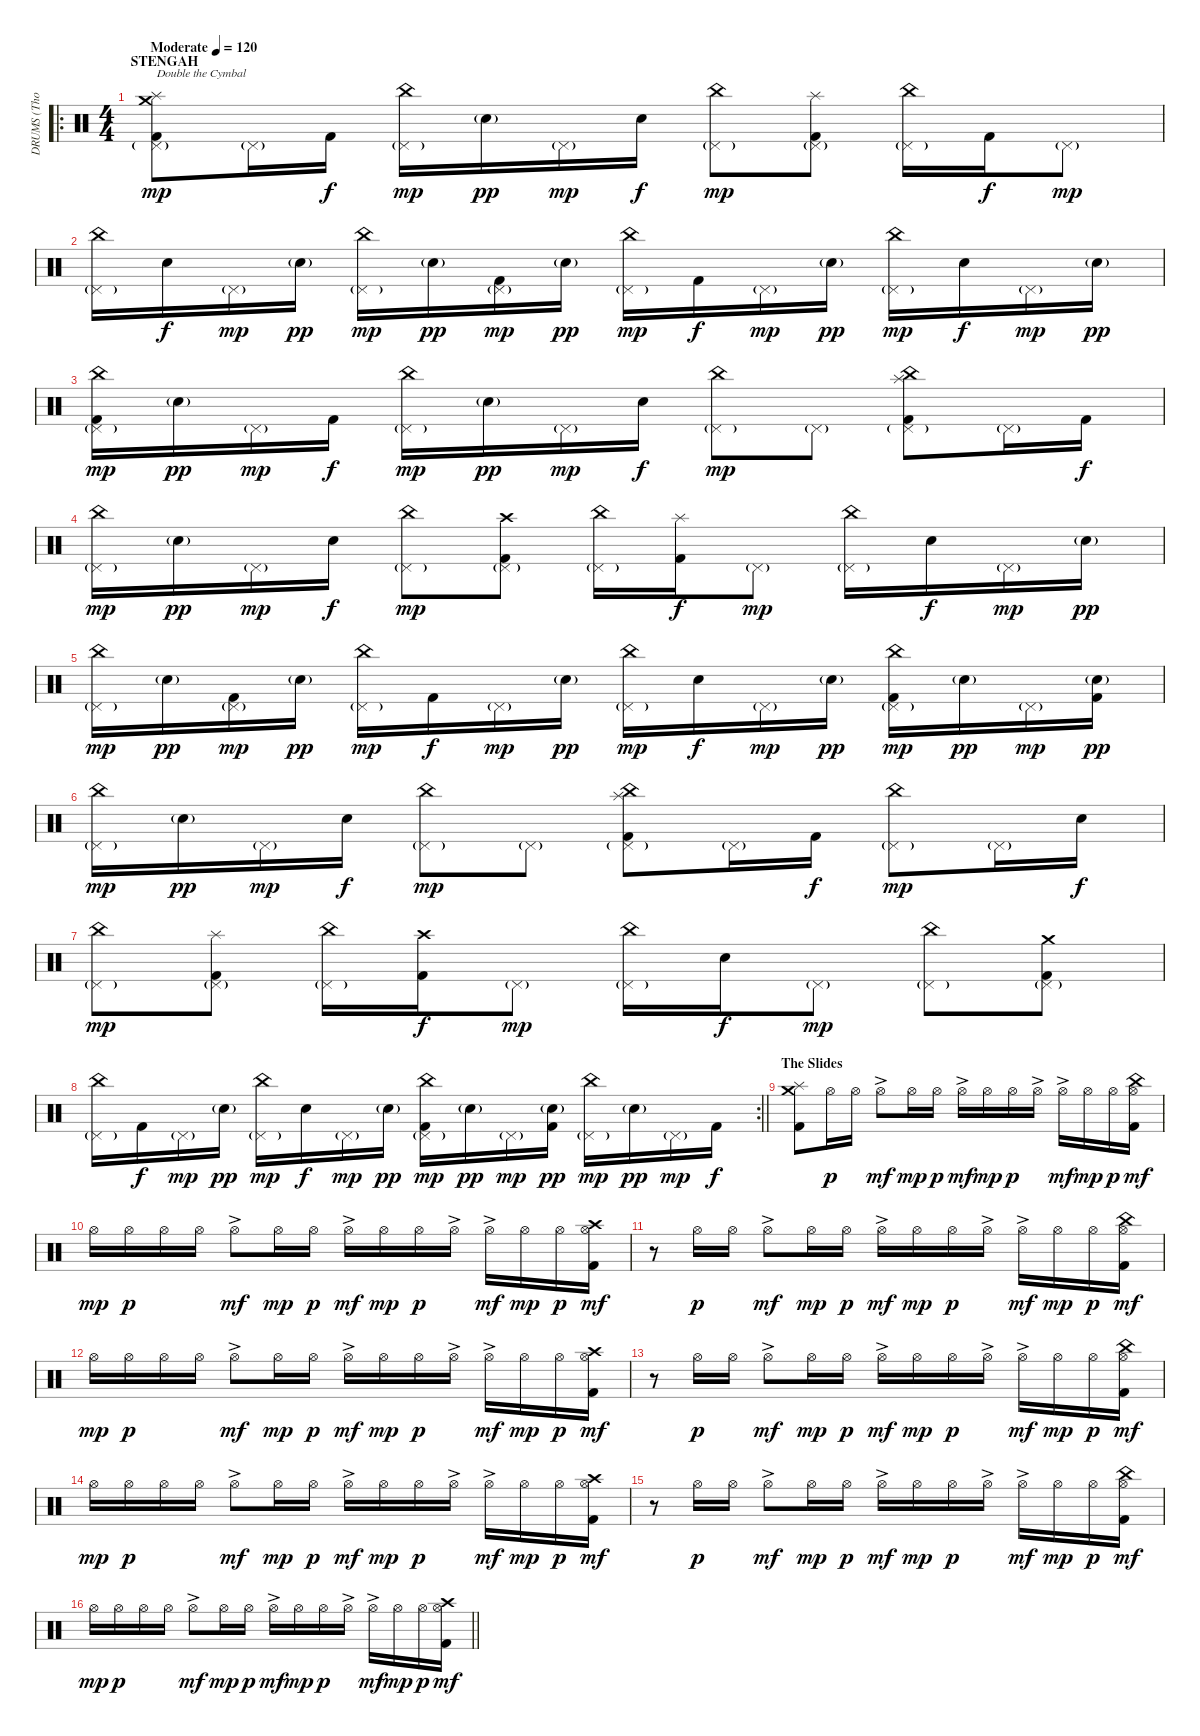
\track ("DRUMS (Thomas Haake)" "DRUMS (Tho") {instrument percussion}
\staff {score}
\articulation defaults
\ro
\ts (4 4)
\section ("" "STENGAH")
\tempo (120 "Moderate")
\clef neutral
\ks c
("Crash medium (hit)" "Pedal Hi-Hat (hit)"{g} "Splash (hit)" "Kick (hit) 2").8{txt "Double the Cymbal" dy mp} "Pedal Hi-Hat (hit)"{g}.16 "Kick (hit) 2".16{dy f} ("China (hit)" "Pedal Hi-Hat (hit)"{g}).16{dy mp} "Electric Snare (hit)"{g}.16{dy pp} "Pedal Hi-Hat (hit)"{g}.16{dy mp} "Electric Snare (hit)".16{dy f} ("China (hit)" "Pedal Hi-Hat (hit)"{g}).8{dy mp} ("Pedal Hi-Hat (hit)"{g} "Splash (hit)" "Kick (hit) 2").8 ("China (hit)" "Pedal Hi-Hat (hit)"{g}).16 "Kick (hit) 2".16{dy f} "Pedal Hi-Hat (hit)"{g}.8{dy mp} |
("China (hit)" "Pedal Hi-Hat (hit)"{g}).16 "Electric Snare (hit)".16{dy f} "Pedal Hi-Hat (hit)"{g}.16{dy mp} "Electric Snare (hit)"{g}.16{dy pp} ("China (hit)" "Pedal Hi-Hat (hit)"{g}).16{dy mp} "Electric Snare (hit)"{g}.16{dy pp} ("Pedal Hi-Hat (hit)"{g} "Kick (hit) 2").16{dy mp} "Electric Snare (hit)"{g}.16{dy pp} ("China (hit)" "Pedal Hi-Hat (hit)"{g}).16{dy mp} "Kick (hit) 2".16{dy f} "Pedal Hi-Hat (hit)"{g}.16{dy mp} "Electric Snare (hit)"{g}.16{dy pp} ("China (hit)" "Pedal Hi-Hat (hit)"{g}).16{dy mp} "Electric Snare (hit)".16{dy f} "Pedal Hi-Hat (hit)"{g}.16{dy mp} "Electric Snare (hit)"{g}.16{dy pp} |
("China (hit)" "Pedal Hi-Hat (hit)"{g} "Kick (hit) 2").16{dy mp} "Electric Snare (hit)"{g}.16{dy pp} "Pedal Hi-Hat (hit)"{g}.16{dy mp} "Kick (hit) 2".16{dy f} ("China (hit)" "Pedal Hi-Hat (hit)"{g}).16{dy mp} "Electric Snare (hit)"{g}.16{dy pp} "Pedal Hi-Hat (hit)"{g}.16{dy mp} "Electric Snare (hit)".16{dy f} ("China (hit)" "Pedal Hi-Hat (hit)"{g}).8{dy mp} "Pedal Hi-Hat (hit)"{g}.8 ("China (hit)" "Pedal Hi-Hat (hit)"{g} "Splash (hit)" "Kick (hit) 2").8 "Pedal Hi-Hat (hit)"{g}.16 "Kick (hit) 2".16{dy f} |
("China (hit)" "Pedal Hi-Hat (hit)"{g}).16{dy mp} "Electric Snare (hit)"{g}.16{dy pp} "Pedal Hi-Hat (hit)"{g}.16{dy mp} "Electric Snare (hit)".16{dy f} ("China (hit)" "Pedal Hi-Hat (hit)"{g}).8{dy mp} ("Pedal Hi-Hat (hit)"{g} "Crash high (hit)" "Kick (hit) 2").8 ("China (hit)" "Pedal Hi-Hat (hit)"{g}).16 ("Splash (hit)" "Kick (hit) 2").16{dy f} "Pedal Hi-Hat (hit)"{g}.8{dy mp} ("China (hit)" "Pedal Hi-Hat (hit)"{g}).16 "Electric Snare (hit)".16{dy f} "Pedal Hi-Hat (hit)"{g}.16{dy mp} "Electric Snare (hit)"{g}.16{dy pp} |
("China (hit)" "Pedal Hi-Hat (hit)"{g}).16{dy mp} "Electric Snare (hit)"{g}.16{dy pp} ("Pedal Hi-Hat (hit)"{g} "Kick (hit) 2").16{dy mp} "Electric Snare (hit)"{g}.16{dy pp} ("China (hit)" "Pedal Hi-Hat (hit)"{g}).16{dy mp} "Kick (hit) 2".16{dy f} "Pedal Hi-Hat (hit)"{g}.16{dy mp} "Electric Snare (hit)"{g}.16{dy pp} ("China (hit)" "Pedal Hi-Hat (hit)"{g}).16{dy mp} "Electric Snare (hit)".16{dy f} "Pedal Hi-Hat (hit)"{g}.16{dy mp} "Electric Snare (hit)"{g}.16{dy pp} ("China (hit)" "Pedal Hi-Hat (hit)"{g} "Kick (hit) 2").16{dy mp} "Electric Snare (hit)"{g}.16{dy pp} "Pedal Hi-Hat (hit)"{g}.16{dy mp} ("Electric Snare (hit)"{g} "Kick (hit) 2").16{dy pp} |
("China (hit)" "Pedal Hi-Hat (hit)"{g}).16{dy mp} "Electric Snare (hit)"{g}.16{dy pp} "Pedal Hi-Hat (hit)"{g}.16{dy mp} "Electric Snare (hit)".16{dy f} ("China (hit)" "Pedal Hi-Hat (hit)"{g}).8{dy mp} "Pedal Hi-Hat (hit)"{g}.8 ("China (hit)" "Pedal Hi-Hat (hit)"{g} "Splash (hit)" "Kick (hit) 2").8 "Pedal Hi-Hat (hit)"{g}.16 "Kick (hit) 2".16{dy f} ("China (hit)" "Pedal Hi-Hat (hit)"{g}).8{dy mp} "Pedal Hi-Hat (hit)"{g}.16 "Electric Snare (hit)".16{dy f} |
("China (hit)" "Pedal Hi-Hat (hit)"{g}).8{dy mp} ("Pedal Hi-Hat (hit)"{g} "Splash (hit)" "Kick (hit) 2").8 ("China (hit)" "Pedal Hi-Hat (hit)"{g}).16 ("Crash high (hit)" "Kick (hit) 2").16{dy f} "Pedal Hi-Hat (hit)"{g}.8{dy mp} ("China (hit)" "Pedal Hi-Hat (hit)"{g}).16 "Electric Snare (hit)".16{dy f} "Pedal Hi-Hat (hit)"{g}.8{dy mp} ("China (hit)" "Pedal Hi-Hat (hit)"{g}).8 ("Pedal Hi-Hat (hit)"{g} "Crash medium (hit)" "Kick (hit) 2").8 |
\rc 2
\barLineRight lightlight
("China (hit)" "Pedal Hi-Hat (hit)"{g}).16 "Kick (hit) 2".16{dy f} "Pedal Hi-Hat (hit)"{g}.16{dy mp} "Electric Snare (hit)"{g}.16{dy pp} ("China (hit)" "Pedal Hi-Hat (hit)"{g}).16{dy mp} "Electric Snare (hit)".16{dy f} "Pedal Hi-Hat (hit)"{g}.16{dy mp} "Electric Snare (hit)"{g}.16{dy pp} ("China (hit)" "Pedal Hi-Hat (hit)"{g} "Kick (hit) 2").16{dy mp} "Electric Snare (hit)"{g}.16{dy pp} "Pedal Hi-Hat (hit)"{g}.16{dy mp} ("Electric Snare (hit)"{g} "Kick (hit) 2").16{dy pp} ("China (hit)" "Pedal Hi-Hat (hit)"{g}).16{dy mp} "Electric Snare (hit)"{g}.16{dy pp} "Pedal Hi-Hat (hit)"{g}.16{dy mp} "Kick (hit) 2".16{dy f} |
\section ("" "The Slides")
("Crash medium (hit)" "Splash (hit)" "Kick (hit) 2").8 "Hi-Hat (open)".16{dy p} "Hi-Hat (open)".16 "Hi-Hat (open)"{ac}.8{dy mf} "Hi-Hat (open)".16{dy mp} "Hi-Hat (open)".16{dy p} "Hi-Hat (open)"{ac}.16{dy mf} "Hi-Hat (open)".16{dy mp} "Hi-Hat (open)".16{dy p} "Hi-Hat (open)"{ac}.16 "Hi-Hat (open)"{ac}.16{dy mf} "Hi-Hat (open)".16{dy mp} "Hi-Hat (open)".16{dy p} ("China (hit)" "Hi-Hat (open)" "Kick (hit) 2").16{dy mf} |
"Hi-Hat (open)".16{dy mp} "Hi-Hat (open)".16{dy p} "Hi-Hat (open)".16 "Hi-Hat (open)".16 "Hi-Hat (open)"{ac}.8{dy mf} "Hi-Hat (open)".16{dy mp} "Hi-Hat (open)".16{dy p} "Hi-Hat (open)"{ac}.16{dy mf} "Hi-Hat (open)".16{dy mp} "Hi-Hat (open)".16{dy p} "Hi-Hat (open)"{ac}.16 "Hi-Hat (open)"{ac}.16{dy mf} "Hi-Hat (open)".16{dy mp} "Hi-Hat (open)".16{dy p} ("Crash high (hit)" "Hi-Hat (open)" "Kick (hit) 2").16{dy mf} |
r.8 "Hi-Hat (open)".16{dy p} "Hi-Hat (open)".16 "Hi-Hat (open)"{ac}.8{dy mf} "Hi-Hat (open)".16{dy mp} "Hi-Hat (open)".16{dy p} "Hi-Hat (open)"{ac}.16{dy mf} "Hi-Hat (open)".16{dy mp} "Hi-Hat (open)".16{dy p} "Hi-Hat (open)"{ac}.16 "Hi-Hat (open)"{ac}.16{dy mf} "Hi-Hat (open)".16{dy mp} "Hi-Hat (open)".16{dy p} ("China (hit)" "Hi-Hat (open)" "Kick (hit) 2").16{dy mf} |
"Hi-Hat (open)".16{dy mp} "Hi-Hat (open)".16{dy p} "Hi-Hat (open)".16 "Hi-Hat (open)".16 "Hi-Hat (open)"{ac}.8{dy mf} "Hi-Hat (open)".16{dy mp} "Hi-Hat (open)".16{dy p} "Hi-Hat (open)"{ac}.16{dy mf} "Hi-Hat (open)".16{dy mp} "Hi-Hat (open)".16{dy p} "Hi-Hat (open)"{ac}.16 "Hi-Hat (open)"{ac}.16{dy mf} "Hi-Hat (open)".16{dy mp} "Hi-Hat (open)".16{dy p} ("Crash high (hit)" "Hi-Hat (open)" "Kick (hit) 2").16{dy mf} |
r.8 "Hi-Hat (open)".16{dy p} "Hi-Hat (open)".16 "Hi-Hat (open)"{ac}.8{dy mf} "Hi-Hat (open)".16{dy mp} "Hi-Hat (open)".16{dy p} "Hi-Hat (open)"{ac}.16{dy mf} "Hi-Hat (open)".16{dy mp} "Hi-Hat (open)".16{dy p} "Hi-Hat (open)"{ac}.16 "Hi-Hat (open)"{ac}.16{dy mf} "Hi-Hat (open)".16{dy mp} "Hi-Hat (open)".16{dy p} ("China (hit)" "Hi-Hat (open)" "Kick (hit) 2").16{dy mf} |
"Hi-Hat (open)".16{dy mp} "Hi-Hat (open)".16{dy p} "Hi-Hat (open)".16 "Hi-Hat (open)".16 "Hi-Hat (open)"{ac}.8{dy mf} "Hi-Hat (open)".16{dy mp} "Hi-Hat (open)".16{dy p} "Hi-Hat (open)"{ac}.16{dy mf} "Hi-Hat (open)".16{dy mp} "Hi-Hat (open)".16{dy p} "Hi-Hat (open)"{ac}.16 "Hi-Hat (open)"{ac}.16{dy mf} "Hi-Hat (open)".16{dy mp} "Hi-Hat (open)".16{dy p} ("Crash high (hit)" "Hi-Hat (open)" "Kick (hit) 2").16{dy mf} |
r.8 "Hi-Hat (open)".16{dy p} "Hi-Hat (open)".16 "Hi-Hat (open)"{ac}.8{dy mf} "Hi-Hat (open)".16{dy mp} "Hi-Hat (open)".16{dy p} "Hi-Hat (open)"{ac}.16{dy mf} "Hi-Hat (open)".16{dy mp} "Hi-Hat (open)".16{dy p} "Hi-Hat (open)"{ac}.16 "Hi-Hat (open)"{ac}.16{dy mf} "Hi-Hat (open)".16{dy mp} "Hi-Hat (open)".16{dy p} ("China (hit)" "Hi-Hat (open)" "Kick (hit) 2").16{dy mf} |
\barLineRight lightlight "Hi-Hat (open)".16{dy mp} "Hi-Hat (open)".16{dy p} "Hi-Hat (open)".16 "Hi-Hat (open)".16 "Hi-Hat (open)"{ac}.8{dy mf} "Hi-Hat (open)".16{dy mp} "Hi-Hat (open)".16{dy p} "Hi-Hat (open)"{ac}.16{dy mf} "Hi-Hat (open)".16{dy mp} "Hi-Hat (open)".16{dy p} "Hi-Hat (open)"{ac}.16 "Hi-Hat (open)"{ac}.16{dy mf} "Hi-Hat (open)".16{dy mp} "Hi-Hat (open)".16{dy p}
("Crash high (hit)" "Hi-Hat (open)" "Kick (hit) 2").16{dy mf}
